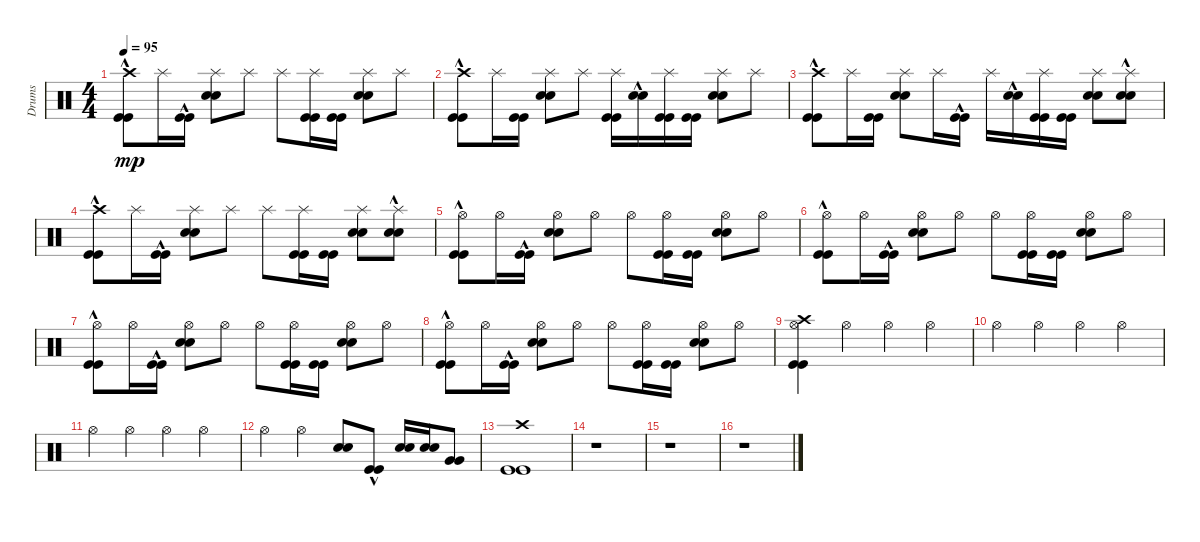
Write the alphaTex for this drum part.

\track ("Drums" "Drums") {instrument percussion}
\staff {score}
\articulation defaults
\ts (4 4)
\tempo 95
\clef neutral
\ks c
("Kick (hit)"{hac} "Kick (hit)"{hac} "Crash high (hit)").8{dy mp} "Splash (hit)".16 ("Kick (hit)"{hac} "Kick (hit)"{hac}).16 ("Snare (hit) 2" "Snare (hit) 2" "Splash (hit)").8 "Splash (hit)".8 "Splash (hit)".8 ("Kick (hit)" "Kick (hit)" "Splash (hit)").16 ("Kick (hit)" "Kick (hit)").16 ("Snare (hit) 2" "Snare (hit) 2" "Splash (hit)").8 "Splash (hit)".8 |
("Kick (hit)"{hac} "Kick (hit)"{hac} "Crash high (hit)").8 "Splash (hit)".16 ("Kick (hit)" "Kick (hit)").16 ("Snare (hit) 2" "Snare (hit) 2" "Splash (hit)").8 "Splash (hit)".8 ("Kick (hit)" "Kick (hit)" "Splash (hit)").16 ("Snare (hit) 2"{hac} "Snare (hit) 2"{hac}).16 ("Kick (hit)" "Kick (hit)" "Splash (hit)").16 ("Kick (hit)" "Kick (hit)").16 ("Snare (hit) 2" "Snare (hit) 2" "Splash (hit)").8 "Splash (hit)".8 |
("Kick (hit)"{hac} "Kick (hit)"{hac} "Crash high (hit)").8 "Splash (hit)".16 ("Kick (hit)" "Kick (hit)").16 ("Snare (hit) 2" "Snare (hit) 2" "Splash (hit)").8 "Splash (hit)".16 ("Kick (hit)"{hac} "Kick (hit)"{hac}).16 "Splash (hit)".16 ("Snare (hit) 2"{hac} "Snare (hit) 2"{hac}).16 ("Kick (hit)" "Kick (hit)" "Splash (hit)").16 ("Kick (hit)" "Kick (hit)").16 ("Snare (hit) 2" "Snare (hit) 2" "Splash (hit)").8 ("Snare (hit) 2"{hac} "Snare (hit) 2"{hac} "Splash (hit)").8 |
("Kick (hit)"{hac} "Kick (hit)"{hac} "Crash high (hit)").8 "Splash (hit)".16 ("Kick (hit)"{hac} "Kick (hit)"{hac}).16 ("Snare (hit) 2" "Snare (hit) 2" "Splash (hit)").8 "Splash (hit)".8 "Splash (hit)".8 ("Kick (hit)" "Kick (hit)" "Splash (hit)").16 ("Kick (hit)" "Kick (hit)").16 ("Snare (hit) 2" "Snare (hit) 2" "Splash (hit)").8 ("Snare (hit) 2"{hac} "Snare (hit) 2"{hac} "Splash (hit)").8 |
("Kick (hit)"{hac} "Kick (hit)"{hac} "Hi-Hat (open)").8 "Hi-Hat (open)".16 ("Kick (hit)"{hac} "Kick (hit)"{hac}).16 ("Snare (hit) 2" "Snare (hit) 2" "Hi-Hat (open)").8 "Hi-Hat (open)".8 "Hi-Hat (open)".8 ("Kick (hit)" "Kick (hit)" "Hi-Hat (open)").16 ("Kick (hit)" "Kick (hit)").16 ("Snare (hit) 2" "Snare (hit) 2" "Hi-Hat (open)").8 "Hi-Hat (open)".8 |
("Kick (hit)"{hac} "Kick (hit)"{hac} "Hi-Hat (open)").8 "Hi-Hat (open)".16 ("Kick (hit)"{hac} "Kick (hit)"{hac}).16 ("Snare (hit) 2" "Snare (hit) 2" "Hi-Hat (open)").8 "Hi-Hat (open)".8 "Hi-Hat (open)".8 ("Kick (hit)" "Kick (hit)" "Hi-Hat (open)").16 ("Kick (hit)" "Kick (hit)").16 ("Snare (hit) 2" "Snare (hit) 2" "Hi-Hat (open)").8 "Hi-Hat (open)".8 |
("Kick (hit)"{hac} "Kick (hit)"{hac} "Hi-Hat (open)").8 "Hi-Hat (open)".16 ("Kick (hit)"{hac} "Kick (hit)"{hac}).16 ("Snare (hit) 2" "Snare (hit) 2" "Hi-Hat (open)").8 "Hi-Hat (open)".8 "Hi-Hat (open)".8 ("Kick (hit)" "Kick (hit)" "Hi-Hat (open)").16 ("Kick (hit)" "Kick (hit)").16 ("Snare (hit) 2" "Snare (hit) 2" "Hi-Hat (open)").8 "Hi-Hat (open)".8 |
("Kick (hit)"{hac} "Kick (hit)"{hac} "Hi-Hat (open)").8 "Hi-Hat (open)".16 ("Kick (hit)"{hac} "Kick (hit)"{hac}).16 ("Snare (hit) 2" "Snare (hit) 2" "Hi-Hat (open)").8 "Hi-Hat (open)".8 "Hi-Hat (open)".8 ("Kick (hit)" "Kick (hit)" "Hi-Hat (open)").16 ("Kick (hit)" "Kick (hit)").16 ("Snare (hit) 2" "Snare (hit) 2" "Hi-Hat (open)").8 "Hi-Hat (open)".8 |
("Kick (hit)" "Kick (hit)" "Hi-Hat (open)" "Crash high (hit)").4 "Hi-Hat (open)".4 "Hi-Hat (open)".4 "Hi-Hat (open)".4 |
"Hi-Hat (open)".4 "Hi-Hat (open)".4 "Hi-Hat (open)".4 "Hi-Hat (open)".4 |
"Hi-Hat (open)".4 "Hi-Hat (open)".4 "Hi-Hat (open)".4 "Hi-Hat (open)".4 |
"Hi-Hat (open)".4 "Hi-Hat (open)".4 ("Snare (hit) 2" "Snare (hit) 2").8 ("Kick (hit)"{hac} "Kick (hit)"{hac}).8 ("Snare (hit) 2" "Snare (hit) 2").16 ("Snare (hit) 2" "Snare (hit) 2").16 ("Very Low Tom (hit)" "Very Low Tom (hit)").8 |
("Kick (hit)" "Kick (hit)" "Crash high (hit)").1 |
r.1 |
r.1 |
r.1
